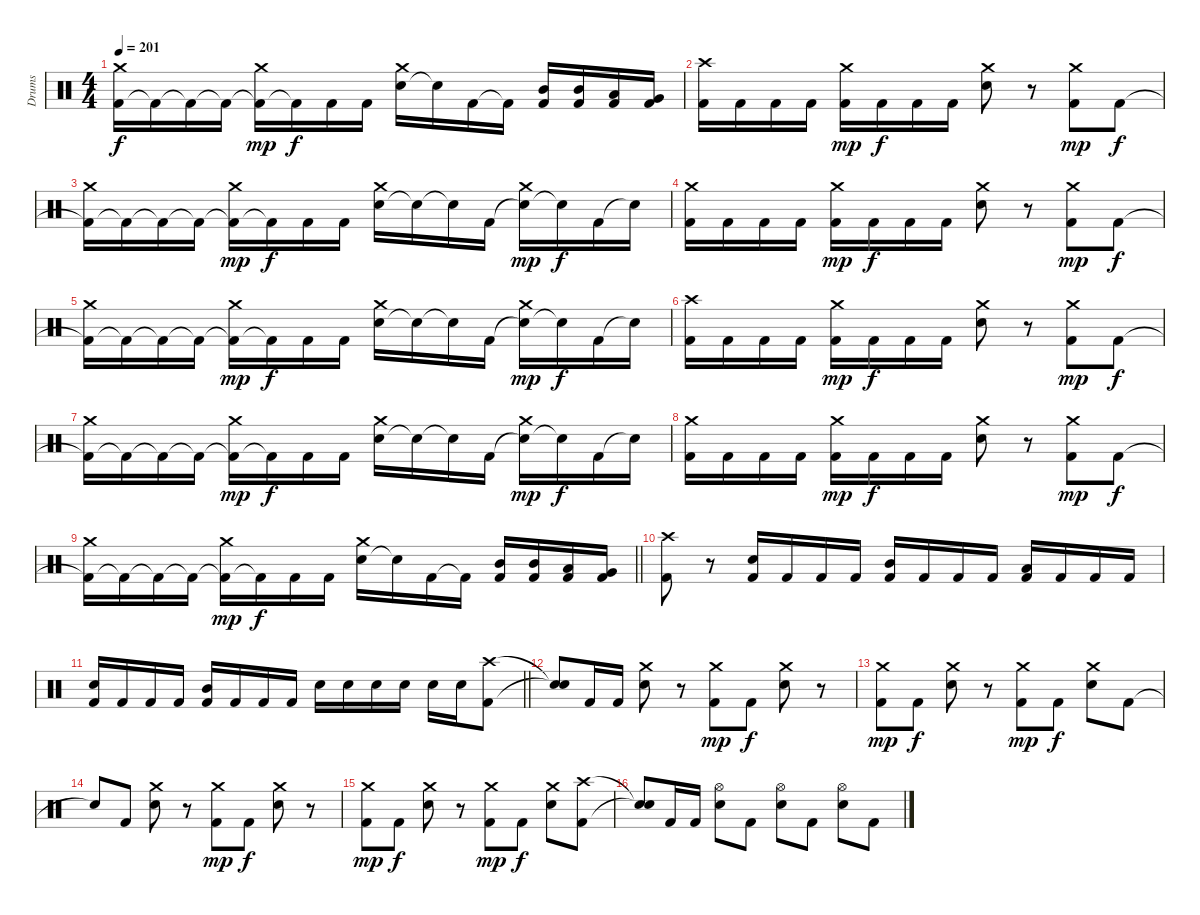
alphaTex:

\track ("Drums" "Drums") {instrument percussion}
\staff {score}
\articulation defaults
\ts (4 4)
\tempo 201
\clef neutral
\ks c
("Kick (hit) 2"{t} "Crash medium (hit)").16{dy f} "Kick (hit) 2"{t}.16 "Kick (hit) 2"{t}.16 "Kick (hit) 2"{t}.16 ("Kick (hit) 2"{t} "Crash medium (hit)").16{dy mp} "Kick (hit) 2"{t}.16{dy f} "Kick (hit) 2".16 "Kick (hit) 2".16 ("Snare (hit) 2" "Crash medium (hit)").16 "Snare (hit)"{t}.16 "Kick (hit) 2".16 "Kick (hit) 2"{t}.16 ("Kick (hit) 2" "Mid Tom (hit)").16 ("Kick (hit) 2" "Mid Tom (hit)").16 ("Kick (hit) 2" "Low Tom (hit)").16 ("Kick (hit) 2" "Very Low Tom (hit)").16 |
("Kick (hit) 2" "Crash high (hit)").16 "Kick (hit) 2".16 "Kick (hit) 2".16 "Kick (hit) 2".16 ("Kick (hit) 2" "Crash medium (hit)").16{dy mp} "Kick (hit) 2".16{dy f} "Kick (hit) 2".16 "Kick (hit) 2".16 ("Snare (hit) 2" "Crash medium (hit)").8 r.8 ("Kick (hit) 2" "Crash medium (hit)").8{dy mp} "Kick (hit) 2".8{dy f} |
("Kick (hit) 2"{t} "Crash medium (hit)").16 "Kick (hit) 2"{t}.16 "Kick (hit) 2"{t}.16 "Kick (hit) 2"{t}.16 ("Kick (hit) 2"{t} "Crash medium (hit)").16{dy mp} "Kick (hit) 2"{t}.16{dy f} "Kick (hit) 2".16 "Kick (hit) 2".16 ("Snare (hit) 2" "Crash medium (hit)").16 "Snare (hit)"{t}.16 "Snare (hit)"{t}.16 "Kick (hit) 2".16 ("Snare (hit)"{t} "Crash medium (hit)").16{dy mp} "Snare (hit)"{t}.16{dy f} "Kick (hit) 2".16 "Snare (hit)"{t}.16 |
("Kick (hit) 2" "Crash medium (hit)").16 "Kick (hit) 2".16 "Kick (hit) 2".16 "Kick (hit) 2".16 ("Kick (hit) 2" "Crash medium (hit)").16{dy mp} "Kick (hit) 2".16{dy f} "Kick (hit) 2".16 "Kick (hit) 2".16 ("Snare (hit) 2" "Crash medium (hit)").8 r.8 ("Kick (hit) 2" "Crash medium (hit)").8{dy mp} "Kick (hit) 2".8{dy f} |
("Kick (hit) 2"{t} "Crash medium (hit)").16 "Kick (hit) 2"{t}.16 "Kick (hit) 2"{t}.16 "Kick (hit) 2"{t}.16 ("Kick (hit) 2"{t} "Crash medium (hit)").16{dy mp} "Kick (hit) 2"{t}.16{dy f} "Kick (hit) 2".16 "Kick (hit) 2".16 ("Snare (hit) 2" "Crash medium (hit)").16 "Snare (hit)"{t}.16 "Snare (hit)"{t}.16 "Kick (hit) 2".16 ("Snare (hit)"{t} "Crash medium (hit)").16{dy mp} "Snare (hit)"{t}.16{dy f} "Kick (hit) 2".16 "Snare (hit)"{t}.16 |
("Kick (hit) 2" "Crash high (hit)").16 "Kick (hit) 2".16 "Kick (hit) 2".16 "Kick (hit) 2".16 ("Kick (hit) 2" "Crash medium (hit)").16{dy mp} "Kick (hit) 2".16{dy f} "Kick (hit) 2".16 "Kick (hit) 2".16 ("Snare (hit) 2" "Crash medium (hit)").8 r.8 ("Kick (hit) 2" "Crash medium (hit)").8{dy mp} "Kick (hit) 2".8{dy f} |
("Kick (hit) 2"{t} "Crash medium (hit)").16 "Kick (hit) 2"{t}.16 "Kick (hit) 2"{t}.16 "Kick (hit) 2"{t}.16 ("Kick (hit) 2"{t} "Crash medium (hit)").16{dy mp} "Kick (hit) 2"{t}.16{dy f} "Kick (hit) 2".16 "Kick (hit) 2".16 ("Snare (hit) 2" "Crash medium (hit)").16 "Snare (hit)"{t}.16 "Snare (hit)"{t}.16 "Kick (hit) 2".16 ("Snare (hit)"{t} "Crash medium (hit)").16{dy mp} "Snare (hit)"{t}.16{dy f} "Kick (hit) 2".16 "Snare (hit)"{t}.16 |
("Kick (hit) 2" "Crash medium (hit)").16 "Kick (hit) 2".16 "Kick (hit) 2".16 "Kick (hit) 2".16 ("Kick (hit) 2" "Crash medium (hit)").16{dy mp} "Kick (hit) 2".16{dy f} "Kick (hit) 2".16 "Kick (hit) 2".16 ("Snare (hit) 2" "Crash medium (hit)").8 r.8 ("Kick (hit) 2" "Crash medium (hit)").8{dy mp} "Kick (hit) 2".8{dy f} |
\barLineRight lightlight
("Kick (hit) 2"{t} "Crash medium (hit)").16 "Kick (hit) 2"{t}.16 "Kick (hit) 2"{t}.16 "Kick (hit) 2"{t}.16 ("Kick (hit) 2"{t} "Crash medium (hit)").16{dy mp} "Kick (hit) 2"{t}.16{dy f} "Kick (hit) 2".16 "Kick (hit) 2".16 ("Snare (hit) 2" "Crash medium (hit)").16 "Snare (hit)"{t}.16 "Kick (hit) 2".16 "Kick (hit) 2"{t}.16 ("Kick (hit) 2" "Mid Tom (hit)").16 ("Kick (hit) 2" "Mid Tom (hit)").16 ("Kick (hit) 2" "Low Tom (hit)").16 ("Kick (hit) 2" "Very Low Tom (hit)").16 |
\section ("" " ")
("Kick (hit) 2" "Crash high (hit)").8 r.8 ("Kick (hit) 2" "Snare (hit) 2").16 "Kick (hit) 2".16 "Kick (hit) 2".16 "Kick (hit) 2".16 ("Kick (hit) 2" "Mid Tom (hit)").16 "Kick (hit) 2".16 "Kick (hit) 2".16 "Kick (hit) 2".16 ("Kick (hit) 2" "Low Tom (hit)").16 "Kick (hit) 2".16 "Kick (hit) 2".16 "Kick (hit) 2".16 |
\barLineRight lightlight
("Kick (hit) 2" "Snare (hit) 2").16 "Kick (hit) 2".16 "Kick (hit) 2".16 "Kick (hit) 2".16 ("Kick (hit) 2" "Mid Tom (hit)").16 "Kick (hit) 2".16 "Kick (hit) 2".16 "Kick (hit) 2".16 "Snare (hit) 2".16 "Snare (hit) 2".16 "Snare (hit) 2".16 "Snare (hit) 2".16 "Snare (hit) 2".16 "Snare (hit) 2".16 ("Kick (hit) 2" "Crash high (hit)").8 |
\section ("" " ")
("Snare (hit)"{t} "Snare (hit)"{t}).8 "Kick (hit) 2".16 "Kick (hit) 2".16 ("Snare (hit) 2" "Crash medium (hit)").8 r.8 ("Kick (hit) 2" "Crash medium (hit)").8{dy mp} "Kick (hit) 2".8{dy f} ("Snare (hit) 2" "Crash medium (hit)").8 r.8 |
("Kick (hit) 2" "Crash medium (hit)").8{dy mp} "Kick (hit) 2".8{dy f} ("Snare (hit) 2" "Crash medium (hit)").8 r.8 ("Kick (hit) 2" "Crash medium (hit)").8{dy mp} "Kick (hit) 2".8{dy f} ("Snare (hit) 2" "Crash medium (hit)").8 "Kick (hit) 2".8 |
"Snare (hit)"{t}.8 "Kick (hit) 2".8 ("Snare (hit) 2" "Crash medium (hit)").8 r.8 ("Kick (hit) 2" "Crash medium (hit)").8{dy mp} "Kick (hit) 2".8{dy f} ("Snare (hit) 2" "Crash medium (hit)").8 r.8 |
("Kick (hit) 2" "Crash medium (hit)").8{dy mp} "Kick (hit) 2".8{dy f} ("Snare (hit) 2" "Crash medium (hit)").8 r.8 ("Kick (hit) 2" "Crash medium (hit)").8{dy mp} "Kick (hit) 2".8{dy f} ("Snare (hit) 2" "Crash medium (hit)").8 ("Kick (hit) 2" "Crash high (hit)").8 |
("Snare (hit)"{t} "Snare (hit)"{t}).8 "Kick (hit) 2".16 "Kick (hit) 2".16 ("Snare (hit) 2" "Hi-Hat (open)").8 "Kick (hit) 2".8 ("Snare (hit) 2" "Hi-Hat (open)").8 "Kick (hit) 2".8 ("Snare (hit) 2" "Hi-Hat (open)").8 "Kick (hit) 2".8
